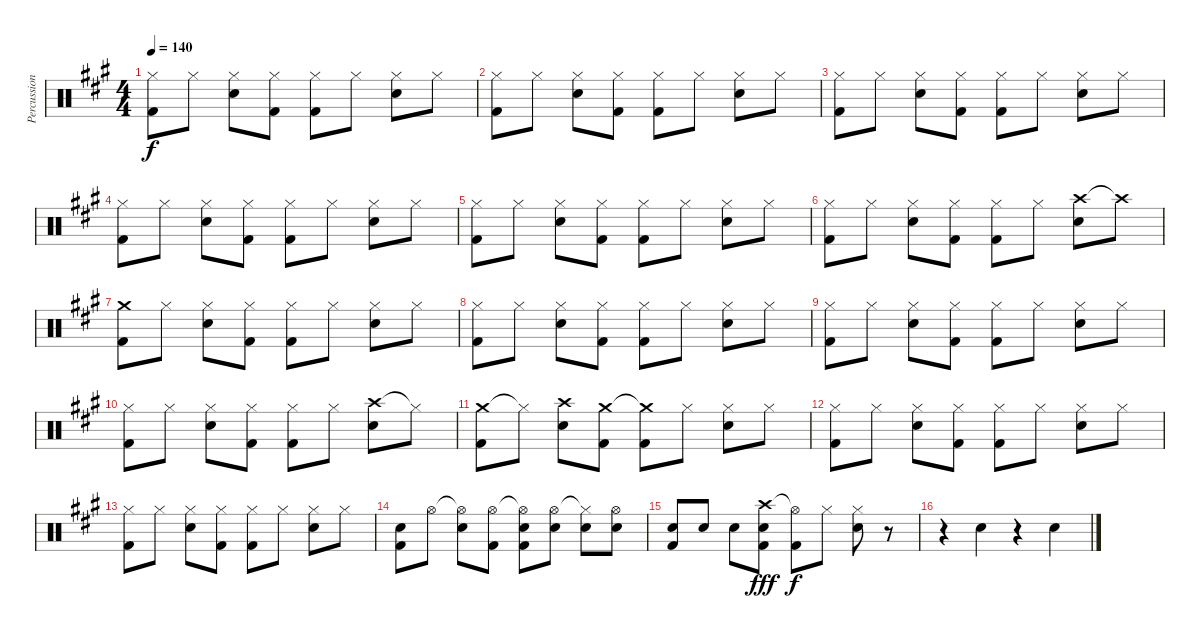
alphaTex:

\track ("Percussion" "Percussion") {instrument percussion}
\staff {score}
\articulation defaults
\ts (4 4)
\tempo 140
\clef neutral
\ks a
("Hi-Hat (closed)" "Kick (hit) 2").8{dy f} "Hi-Hat (closed)".8 ("Hi-Hat (closed)" "Electric Snare (hit)").8 ("Hi-Hat (closed)" "Kick (hit) 2").8 ("Hi-Hat (closed)" "Kick (hit) 2").8 "Hi-Hat (closed)".8 ("Hi-Hat (closed)" "Electric Snare (hit)").8 "Hi-Hat (closed)".8 |
("Hi-Hat (closed)" "Kick (hit) 2").8 "Hi-Hat (closed)".8 ("Hi-Hat (closed)" "Electric Snare (hit)").8 ("Hi-Hat (closed)" "Kick (hit) 2").8 ("Hi-Hat (closed)" "Kick (hit) 2").8 "Hi-Hat (closed)".8 ("Hi-Hat (closed)" "Electric Snare (hit)").8 "Hi-Hat (closed)".8 |
("Hi-Hat (closed)" "Kick (hit) 2").8 "Hi-Hat (closed)".8 ("Hi-Hat (closed)" "Electric Snare (hit)").8 ("Hi-Hat (closed)" "Kick (hit) 2").8 ("Hi-Hat (closed)" "Kick (hit) 2").8 "Hi-Hat (closed)".8 ("Hi-Hat (closed)" "Electric Snare (hit)").8 "Hi-Hat (closed)".8 |
("Hi-Hat (closed)" "Kick (hit) 2").8 "Hi-Hat (closed)".8 ("Hi-Hat (closed)" "Electric Snare (hit)").8 ("Hi-Hat (closed)" "Kick (hit) 2").8 ("Hi-Hat (closed)" "Kick (hit) 2").8 "Hi-Hat (closed)".8 ("Hi-Hat (closed)" "Electric Snare (hit)").8 "Hi-Hat (closed)".8 |
("Hi-Hat (closed)" "Kick (hit) 2").8 "Hi-Hat (closed)".8 ("Hi-Hat (closed)" "Electric Snare (hit)").8 ("Hi-Hat (closed)" "Kick (hit) 2").8 ("Hi-Hat (closed)" "Kick (hit) 2").8 "Hi-Hat (closed)".8 ("Hi-Hat (closed)" "Electric Snare (hit)").8 "Hi-Hat (closed)".8 |
("Hi-Hat (closed)" "Kick (hit) 2").8 "Hi-Hat (closed)".8 ("Hi-Hat (closed)" "Electric Snare (hit)").8 ("Hi-Hat (closed)" "Kick (hit) 2").8 ("Hi-Hat (closed)" "Kick (hit) 2").8 "Hi-Hat (closed)".8 ("Crash high (hit)" "Electric Snare (hit)").8 "Crash high (hit)"{t}.8 |
("Crash medium (hit)" "Kick (hit) 2").8 "Hi-Hat (closed)".8 ("Hi-Hat (closed)" "Electric Snare (hit)").8 ("Hi-Hat (closed)" "Kick (hit) 2").8 ("Hi-Hat (closed)" "Kick (hit) 2").8 "Hi-Hat (closed)".8 ("Hi-Hat (closed)" "Electric Snare (hit)").8 "Hi-Hat (closed)".8 |
("Hi-Hat (closed)" "Kick (hit) 2").8 "Hi-Hat (closed)".8 ("Hi-Hat (closed)" "Electric Snare (hit)").8 ("Hi-Hat (closed)" "Kick (hit) 2").8 ("Hi-Hat (closed)" "Kick (hit) 2").8 "Hi-Hat (closed)".8 ("Hi-Hat (closed)" "Electric Snare (hit)").8 "Hi-Hat (closed)".8 |
("Hi-Hat (closed)" "Kick (hit) 2").8 "Hi-Hat (closed)".8 ("Hi-Hat (closed)" "Electric Snare (hit)").8 ("Hi-Hat (closed)" "Kick (hit) 2").8 ("Hi-Hat (closed)" "Kick (hit) 2").8 "Hi-Hat (closed)".8 ("Hi-Hat (closed)" "Electric Snare (hit)").8 "Hi-Hat (closed)".8 |
("Hi-Hat (closed)" "Kick (hit) 2").8 "Hi-Hat (closed)".8 ("Hi-Hat (closed)" "Electric Snare (hit)").8 ("Hi-Hat (closed)" "Kick (hit) 2").8 ("Hi-Hat (closed)" "Kick (hit) 2").8 "Hi-Hat (closed)".8 ("Crash high (hit)" "Electric Snare (hit)").8 "Hi-Hat (closed)"{t}.8 |
("Crash medium (hit)" "Kick (hit) 2").8 "Hi-Hat (closed)"{t}.8 ("Crash high (hit)" "Electric Snare (hit)").8 ("Crash medium (hit)" "Kick (hit) 2").8 ("Crash medium (hit)"{t} "Kick (hit) 2").8 "Hi-Hat (closed)".8 ("Hi-Hat (closed)" "Electric Snare (hit)").8 "Hi-Hat (closed)".8 |
("Hi-Hat (closed)" "Kick (hit) 2").8 "Hi-Hat (closed)".8 ("Hi-Hat (closed)" "Electric Snare (hit)").8 ("Hi-Hat (closed)" "Kick (hit) 2").8 ("Hi-Hat (closed)" "Kick (hit) 2").8 "Hi-Hat (closed)".8 ("Hi-Hat (closed)" "Electric Snare (hit)").8 "Hi-Hat (closed)".8 |
("Hi-Hat (closed)" "Kick (hit) 2").8 "Hi-Hat (closed)".8 ("Hi-Hat (closed)" "Electric Snare (hit)").8 ("Hi-Hat (closed)" "Kick (hit) 2").8 ("Hi-Hat (closed)" "Kick (hit) 2").8 "Hi-Hat (closed)".8 ("Hi-Hat (closed)" "Electric Snare (hit)").8 "Hi-Hat (closed)".8 |
("Electric Snare (hit)" "Kick (hit) 2").8 "Hi-Hat (open)".8 ("Hi-Hat (open)"{t} "Electric Snare (hit)").8 ("Hi-Hat (open)" "Kick (hit) 2").8 ("Hi-Hat (open)"{t} "Electric Snare (hit)" "Kick (hit) 2").8 ("Hi-Hat (open)" "Electric Snare (hit)").8 ("Hi-Hat (closed)"{t} "Electric Snare (hit)").8 ("Hi-Hat (open)" "Electric Snare (hit)").8 |
("Electric Snare (hit)" "Kick (hit) 2").8 "Electric Snare (hit)".8 "Electric Snare (hit)".8 ("Crash high (hit)" "Electric Snare (hit)" "Kick (hit) 2").8{dy fff} ("Hi-Hat (open)"{t} "Kick (hit) 2").8{dy f} "Hi-Hat (closed)".8 ("Hi-Hat (closed)" "Electric Snare (hit)").8 r.8 |
r.4 "Electric Snare (hit)".4 r.4 "Electric Snare (hit)".4
